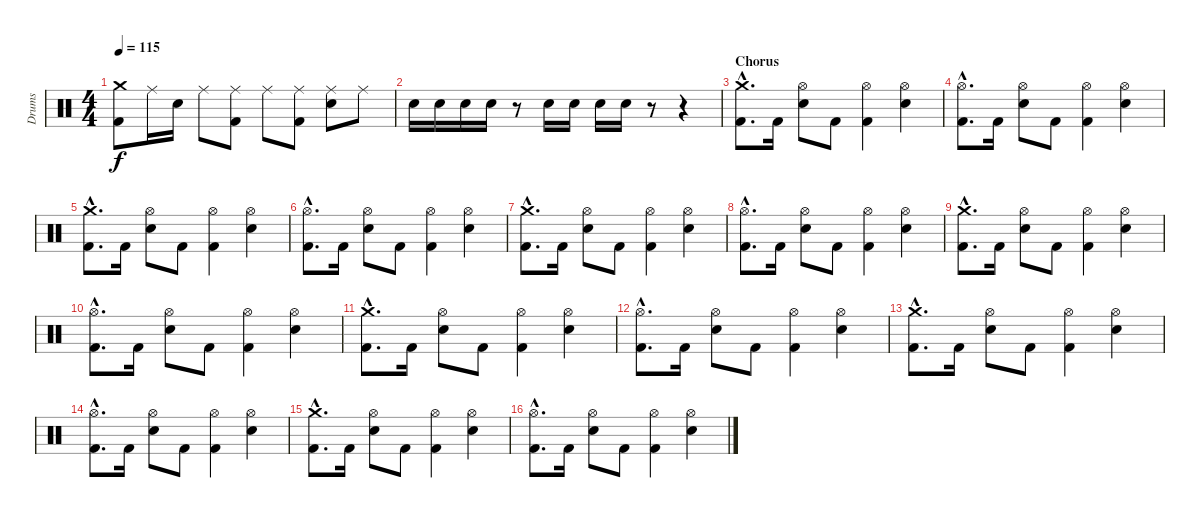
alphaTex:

\track ("Drums" "Drums") {instrument percussion}
\staff {score}
\articulation defaults
\ts (4 4)
\tempo 115
\clef neutral
\ks c
("Crash medium (hit)" "Kick (hit) 2").8{dy f} "Ride (middle)".16 "Electric Snare (hit)".16 "Ride (middle)".8 ("Ride (middle)" "Kick (hit) 2").8 "Ride (middle)".8 ("Ride (middle)" "Kick (hit) 2").8 ("Ride (middle)" "Electric Snare (hit)").8 "Ride (middle)".8 |
"Electric Snare (hit)".16 "Electric Snare (hit)".16 "Electric Snare (hit)".16 "Electric Snare (hit)".16 r.8 "Electric Snare (hit)".16 "Electric Snare (hit)".16 "Electric Snare (hit)".16 "Electric Snare (hit)".16 r.8 r.4 |
\section ("" "Chorus")
("Crash medium (hit)"{hac} "Kick (hit) 2"{hac}).8{d} "Kick (hit) 2".16 ("Hi-Hat (open)" "Electric Snare (hit)").8 "Kick (hit) 2".8 ("Hi-Hat (open)" "Kick (hit) 2").4 ("Hi-Hat (open)" "Electric Snare (hit)").4 |
("Hi-Hat (open)"{hac} "Kick (hit) 2"{hac}).8{d} "Kick (hit) 2".16 ("Hi-Hat (open)" "Electric Snare (hit)").8 "Kick (hit) 2".8 ("Hi-Hat (open)" "Kick (hit) 2").4 ("Hi-Hat (open)" "Electric Snare (hit)").4 |
("Crash medium (hit)"{hac} "Kick (hit) 2"{hac}).8{d} "Kick (hit) 2".16 ("Hi-Hat (open)" "Electric Snare (hit)").8 "Kick (hit) 2".8 ("Hi-Hat (open)" "Kick (hit) 2").4 ("Hi-Hat (open)" "Electric Snare (hit)").4 |
("Hi-Hat (open)"{hac} "Kick (hit) 2"{hac}).8{d} "Kick (hit) 2".16 ("Hi-Hat (open)" "Electric Snare (hit)").8 "Kick (hit) 2".8 ("Hi-Hat (open)" "Kick (hit) 2").4 ("Hi-Hat (open)" "Electric Snare (hit)").4 |
("Crash medium (hit)"{hac} "Kick (hit) 2"{hac}).8{d} "Kick (hit) 2".16 ("Hi-Hat (open)" "Electric Snare (hit)").8 "Kick (hit) 2".8 ("Hi-Hat (open)" "Kick (hit) 2").4 ("Hi-Hat (open)" "Electric Snare (hit)").4 |
("Hi-Hat (open)"{hac} "Kick (hit) 2"{hac}).8{d} "Kick (hit) 2".16 ("Hi-Hat (open)" "Electric Snare (hit)").8 "Kick (hit) 2".8 ("Hi-Hat (open)" "Kick (hit) 2").4 ("Hi-Hat (open)" "Electric Snare (hit)").4 |
("Crash medium (hit)"{hac} "Kick (hit) 2"{hac}).8{d} "Kick (hit) 2".16 ("Hi-Hat (open)" "Electric Snare (hit)").8 "Kick (hit) 2".8 ("Hi-Hat (open)" "Kick (hit) 2").4 ("Hi-Hat (open)" "Electric Snare (hit)").4 |
("Hi-Hat (open)"{hac} "Kick (hit) 2"{hac}).8{d} "Kick (hit) 2".16 ("Hi-Hat (open)" "Electric Snare (hit)").8 "Kick (hit) 2".8 ("Hi-Hat (open)" "Kick (hit) 2").4 ("Hi-Hat (open)" "Electric Snare (hit)").4 |
("Crash medium (hit)"{hac} "Kick (hit) 2"{hac}).8{d} "Kick (hit) 2".16 ("Hi-Hat (open)" "Electric Snare (hit)").8 "Kick (hit) 2".8 ("Hi-Hat (open)" "Kick (hit) 2").4 ("Hi-Hat (open)" "Electric Snare (hit)").4 |
("Hi-Hat (open)"{hac} "Kick (hit) 2"{hac}).8{d} "Kick (hit) 2".16 ("Hi-Hat (open)" "Electric Snare (hit)").8 "Kick (hit) 2".8 ("Hi-Hat (open)" "Kick (hit) 2").4 ("Hi-Hat (open)" "Electric Snare (hit)").4 |
("Crash medium (hit)"{hac} "Kick (hit) 2"{hac}).8{d} "Kick (hit) 2".16 ("Hi-Hat (open)" "Electric Snare (hit)").8 "Kick (hit) 2".8 ("Hi-Hat (open)" "Kick (hit) 2").4 ("Hi-Hat (open)" "Electric Snare (hit)").4 |
("Hi-Hat (open)"{hac} "Kick (hit) 2"{hac}).8{d} "Kick (hit) 2".16 ("Hi-Hat (open)" "Electric Snare (hit)").8 "Kick (hit) 2".8 ("Hi-Hat (open)" "Kick (hit) 2").4 ("Hi-Hat (open)" "Electric Snare (hit)").4 |
("Crash medium (hit)"{hac} "Kick (hit) 2"{hac}).8{d} "Kick (hit) 2".16 ("Hi-Hat (open)" "Electric Snare (hit)").8 "Kick (hit) 2".8 ("Hi-Hat (open)" "Kick (hit) 2").4 ("Hi-Hat (open)" "Electric Snare (hit)").4 |
("Hi-Hat (open)"{hac} "Kick (hit) 2"{hac}).8{d} "Kick (hit) 2".16 ("Hi-Hat (open)" "Electric Snare (hit)").8 "Kick (hit) 2".8 ("Hi-Hat (open)" "Kick (hit) 2").4 ("Hi-Hat (open)" "Electric Snare (hit)").4
